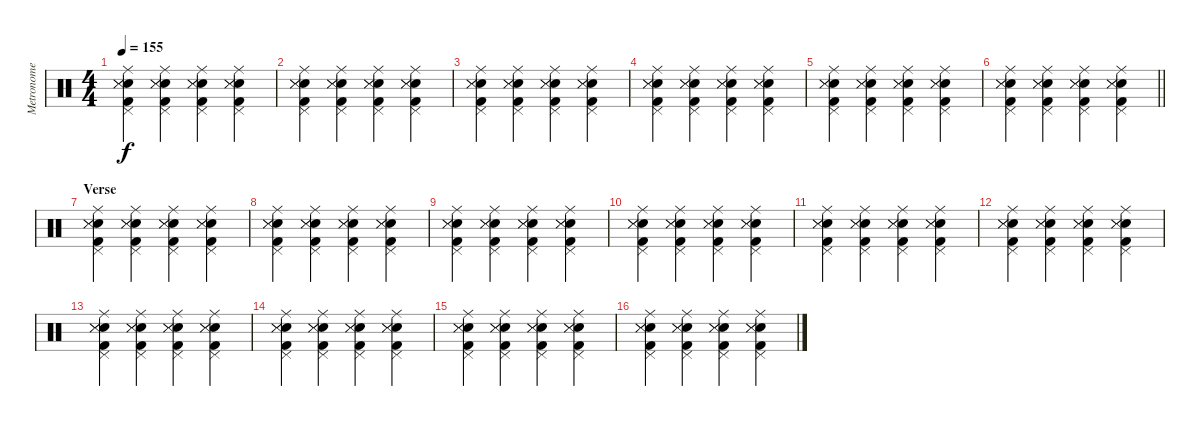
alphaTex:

\track ("Metronome" "Metronome") {mute instrument percussion}
\staff {score}
\articulation defaults
\ts (4 4)
\tempo 155
\clef neutral
\ks c
("Ride (middle)" "Pedal Hi-Hat (hit)" "Electric Snare (hit)" "Snare (side stick) 3" "Metronome (hit)" "Kick (hit) 2").4{dy f} ("Ride (middle)" "Pedal Hi-Hat (hit)" "Electric Snare (hit)" "Snare (side stick) 3" "Metronome (hit)" "Kick (hit) 2").4 ("Ride (middle)" "Pedal Hi-Hat (hit)" "Electric Snare (hit)" "Snare (side stick) 3" "Metronome (hit)" "Kick (hit) 2").4 ("Ride (middle)" "Pedal Hi-Hat (hit)" "Electric Snare (hit)" "Snare (side stick) 3" "Metronome (hit)" "Kick (hit) 2").4 |
("Ride (middle)" "Pedal Hi-Hat (hit)" "Electric Snare (hit)" "Snare (side stick) 3" "Metronome (hit)" "Kick (hit) 2").4 ("Ride (middle)" "Pedal Hi-Hat (hit)" "Electric Snare (hit)" "Snare (side stick) 3" "Metronome (hit)" "Kick (hit) 2").4 ("Ride (middle)" "Pedal Hi-Hat (hit)" "Electric Snare (hit)" "Snare (side stick) 3" "Metronome (hit)" "Kick (hit) 2").4 ("Ride (middle)" "Pedal Hi-Hat (hit)" "Electric Snare (hit)" "Snare (side stick) 3" "Metronome (hit)" "Kick (hit) 2").4 |
("Ride (middle)" "Pedal Hi-Hat (hit)" "Electric Snare (hit)" "Snare (side stick) 3" "Metronome (hit)" "Kick (hit) 2").4 ("Ride (middle)" "Pedal Hi-Hat (hit)" "Electric Snare (hit)" "Snare (side stick) 3" "Metronome (hit)" "Kick (hit) 2").4 ("Ride (middle)" "Pedal Hi-Hat (hit)" "Electric Snare (hit)" "Snare (side stick) 3" "Metronome (hit)" "Kick (hit) 2").4 ("Ride (middle)" "Pedal Hi-Hat (hit)" "Electric Snare (hit)" "Snare (side stick) 3" "Metronome (hit)" "Kick (hit) 2").4 |
("Ride (middle)" "Pedal Hi-Hat (hit)" "Electric Snare (hit)" "Snare (side stick) 3" "Metronome (hit)" "Kick (hit) 2").4 ("Ride (middle)" "Pedal Hi-Hat (hit)" "Electric Snare (hit)" "Snare (side stick) 3" "Metronome (hit)" "Kick (hit) 2").4 ("Ride (middle)" "Pedal Hi-Hat (hit)" "Electric Snare (hit)" "Snare (side stick) 3" "Metronome (hit)" "Kick (hit) 2").4 ("Ride (middle)" "Pedal Hi-Hat (hit)" "Electric Snare (hit)" "Snare (side stick) 3" "Metronome (hit)" "Kick (hit) 2").4 |
("Ride (middle)" "Pedal Hi-Hat (hit)" "Electric Snare (hit)" "Snare (side stick) 3" "Metronome (hit)" "Kick (hit) 2").4 ("Ride (middle)" "Pedal Hi-Hat (hit)" "Electric Snare (hit)" "Snare (side stick) 3" "Metronome (hit)" "Kick (hit) 2").4 ("Ride (middle)" "Pedal Hi-Hat (hit)" "Electric Snare (hit)" "Snare (side stick) 3" "Metronome (hit)" "Kick (hit) 2").4 ("Ride (middle)" "Pedal Hi-Hat (hit)" "Electric Snare (hit)" "Snare (side stick) 3" "Metronome (hit)" "Kick (hit) 2").4 |
\barLineRight lightlight
("Ride (middle)" "Pedal Hi-Hat (hit)" "Electric Snare (hit)" "Snare (side stick) 3" "Metronome (hit)" "Kick (hit) 2").4 ("Ride (middle)" "Pedal Hi-Hat (hit)" "Electric Snare (hit)" "Snare (side stick) 3" "Metronome (hit)" "Kick (hit) 2").4 ("Ride (middle)" "Pedal Hi-Hat (hit)" "Electric Snare (hit)" "Snare (side stick) 3" "Metronome (hit)" "Kick (hit) 2").4 ("Ride (middle)" "Pedal Hi-Hat (hit)" "Electric Snare (hit)" "Snare (side stick) 3" "Metronome (hit)" "Kick (hit) 2").4 |
\section ("" "Verse")
("Ride (middle)" "Pedal Hi-Hat (hit)" "Electric Snare (hit)" "Snare (side stick) 3" "Metronome (hit)" "Kick (hit) 2").4 ("Ride (middle)" "Pedal Hi-Hat (hit)" "Electric Snare (hit)" "Snare (side stick) 3" "Metronome (hit)" "Kick (hit) 2").4 ("Ride (middle)" "Pedal Hi-Hat (hit)" "Electric Snare (hit)" "Snare (side stick) 3" "Metronome (hit)" "Kick (hit) 2").4 ("Ride (middle)" "Pedal Hi-Hat (hit)" "Electric Snare (hit)" "Snare (side stick) 3" "Metronome (hit)" "Kick (hit) 2").4 |
("Ride (middle)" "Pedal Hi-Hat (hit)" "Electric Snare (hit)" "Snare (side stick) 3" "Metronome (hit)" "Kick (hit) 2").4 ("Ride (middle)" "Pedal Hi-Hat (hit)" "Electric Snare (hit)" "Snare (side stick) 3" "Metronome (hit)" "Kick (hit) 2").4 ("Ride (middle)" "Pedal Hi-Hat (hit)" "Electric Snare (hit)" "Snare (side stick) 3" "Metronome (hit)" "Kick (hit) 2").4 ("Ride (middle)" "Pedal Hi-Hat (hit)" "Electric Snare (hit)" "Snare (side stick) 3" "Metronome (hit)" "Kick (hit) 2").4 |
("Ride (middle)" "Pedal Hi-Hat (hit)" "Electric Snare (hit)" "Snare (side stick) 3" "Metronome (hit)" "Kick (hit) 2").4 ("Ride (middle)" "Pedal Hi-Hat (hit)" "Electric Snare (hit)" "Snare (side stick) 3" "Metronome (hit)" "Kick (hit) 2").4 ("Ride (middle)" "Pedal Hi-Hat (hit)" "Electric Snare (hit)" "Snare (side stick) 3" "Metronome (hit)" "Kick (hit) 2").4 ("Ride (middle)" "Pedal Hi-Hat (hit)" "Electric Snare (hit)" "Snare (side stick) 3" "Metronome (hit)" "Kick (hit) 2").4 |
("Ride (middle)" "Pedal Hi-Hat (hit)" "Electric Snare (hit)" "Snare (side stick) 3" "Metronome (hit)" "Kick (hit) 2").4 ("Ride (middle)" "Pedal Hi-Hat (hit)" "Electric Snare (hit)" "Snare (side stick) 3" "Metronome (hit)" "Kick (hit) 2").4 ("Ride (middle)" "Pedal Hi-Hat (hit)" "Electric Snare (hit)" "Snare (side stick) 3" "Metronome (hit)" "Kick (hit) 2").4 ("Ride (middle)" "Pedal Hi-Hat (hit)" "Electric Snare (hit)" "Snare (side stick) 3" "Metronome (hit)" "Kick (hit) 2").4 |
("Ride (middle)" "Pedal Hi-Hat (hit)" "Electric Snare (hit)" "Snare (side stick) 3" "Metronome (hit)" "Kick (hit) 2").4 ("Ride (middle)" "Pedal Hi-Hat (hit)" "Electric Snare (hit)" "Snare (side stick) 3" "Metronome (hit)" "Kick (hit) 2").4 ("Ride (middle)" "Pedal Hi-Hat (hit)" "Electric Snare (hit)" "Snare (side stick) 3" "Metronome (hit)" "Kick (hit) 2").4 ("Ride (middle)" "Pedal Hi-Hat (hit)" "Electric Snare (hit)" "Snare (side stick) 3" "Metronome (hit)" "Kick (hit) 2").4 |
("Ride (middle)" "Pedal Hi-Hat (hit)" "Electric Snare (hit)" "Snare (side stick) 3" "Metronome (hit)" "Kick (hit) 2").4 ("Ride (middle)" "Pedal Hi-Hat (hit)" "Electric Snare (hit)" "Snare (side stick) 3" "Metronome (hit)" "Kick (hit) 2").4 ("Ride (middle)" "Pedal Hi-Hat (hit)" "Electric Snare (hit)" "Snare (side stick) 3" "Metronome (hit)" "Kick (hit) 2").4 ("Ride (middle)" "Pedal Hi-Hat (hit)" "Electric Snare (hit)" "Snare (side stick) 3" "Metronome (hit)" "Kick (hit) 2").4 |
("Ride (middle)" "Pedal Hi-Hat (hit)" "Electric Snare (hit)" "Snare (side stick) 3" "Metronome (hit)" "Kick (hit) 2").4 ("Ride (middle)" "Pedal Hi-Hat (hit)" "Electric Snare (hit)" "Snare (side stick) 3" "Metronome (hit)" "Kick (hit) 2").4 ("Ride (middle)" "Pedal Hi-Hat (hit)" "Electric Snare (hit)" "Snare (side stick) 3" "Metronome (hit)" "Kick (hit) 2").4 ("Ride (middle)" "Pedal Hi-Hat (hit)" "Electric Snare (hit)" "Snare (side stick) 3" "Metronome (hit)" "Kick (hit) 2").4 |
("Ride (middle)" "Pedal Hi-Hat (hit)" "Electric Snare (hit)" "Snare (side stick) 3" "Metronome (hit)" "Kick (hit) 2").4 ("Ride (middle)" "Pedal Hi-Hat (hit)" "Electric Snare (hit)" "Snare (side stick) 3" "Metronome (hit)" "Kick (hit) 2").4 ("Ride (middle)" "Pedal Hi-Hat (hit)" "Electric Snare (hit)" "Snare (side stick) 3" "Metronome (hit)" "Kick (hit) 2").4 ("Ride (middle)" "Pedal Hi-Hat (hit)" "Electric Snare (hit)" "Snare (side stick) 3" "Metronome (hit)" "Kick (hit) 2").4 |
("Ride (middle)" "Pedal Hi-Hat (hit)" "Electric Snare (hit)" "Snare (side stick) 3" "Metronome (hit)" "Kick (hit) 2").4 ("Ride (middle)" "Pedal Hi-Hat (hit)" "Electric Snare (hit)" "Snare (side stick) 3" "Metronome (hit)" "Kick (hit) 2").4 ("Ride (middle)" "Pedal Hi-Hat (hit)" "Electric Snare (hit)" "Snare (side stick) 3" "Metronome (hit)" "Kick (hit) 2").4 ("Ride (middle)" "Pedal Hi-Hat (hit)" "Electric Snare (hit)" "Snare (side stick) 3" "Metronome (hit)" "Kick (hit) 2").4 |
("Ride (middle)" "Pedal Hi-Hat (hit)" "Electric Snare (hit)" "Snare (side stick) 3" "Metronome (hit)" "Kick (hit) 2").4 ("Ride (middle)" "Pedal Hi-Hat (hit)" "Electric Snare (hit)" "Snare (side stick) 3" "Metronome (hit)" "Kick (hit) 2").4 ("Ride (middle)" "Pedal Hi-Hat (hit)" "Electric Snare (hit)" "Snare (side stick) 3" "Metronome (hit)" "Kick (hit) 2").4 ("Ride (middle)" "Pedal Hi-Hat (hit)" "Electric Snare (hit)" "Snare (side stick) 3" "Metronome (hit)" "Kick (hit) 2").4
